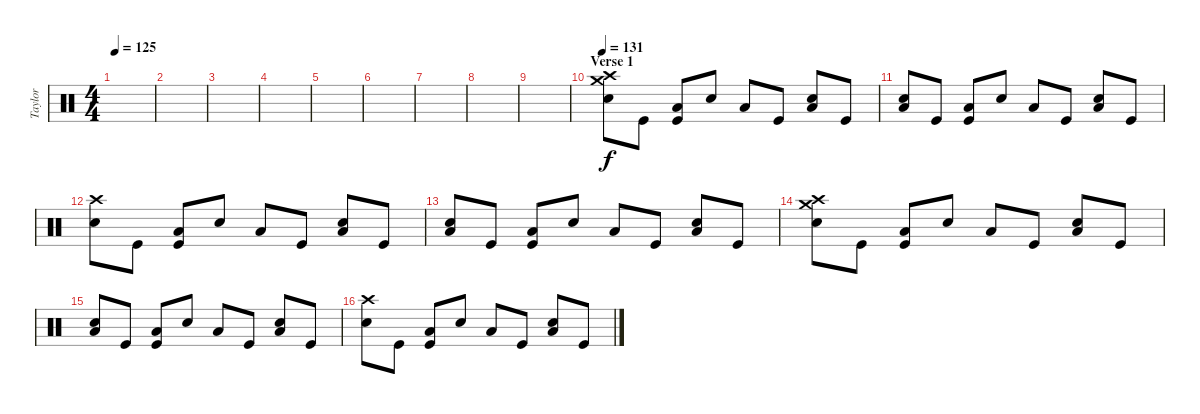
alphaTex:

\track ("Taylor" "Taylor") {instrument percussion}
\staff {score}
\articulation defaults
\ts (4 4)
\tempo 125
\clef neutral
\ks c
|
|
|
|
|
|
|
|
|
\section ("" "Verse 1")
\tempo 131
("Crash medium (hit)" "Crash high (hit)" "Snare (hit) 2").8 "Kick (hit)".8 ("Low Floor Tom (hit)" "Kick (hit)").8 "Snare (hit) 2".8 "Low Floor Tom (hit)".8 "Kick (hit)".8 ("Snare (hit) 2" "Low Floor Tom (hit)").8 "Kick (hit)".8 |
("Low Floor Tom (hit)" "Snare (hit) 2").8 "Kick (hit)".8 ("Low Floor Tom (hit)" "Kick (hit)").8 "Snare (hit) 2".8 "Low Floor Tom (hit)".8 "Kick (hit)".8 ("Snare (hit) 2" "Low Floor Tom (hit)").8 "Kick (hit)".8 |
("Crash high (hit)" "Snare (hit) 2").8 "Kick (hit)".8 ("Low Floor Tom (hit)" "Kick (hit)").8 "Snare (hit) 2".8 "Low Floor Tom (hit)".8 "Kick (hit)".8 ("Snare (hit) 2" "Low Floor Tom (hit)").8 "Kick (hit)".8 |
("Low Floor Tom (hit)" "Snare (hit) 2").8 "Kick (hit)".8 ("Low Floor Tom (hit)" "Kick (hit)").8 "Snare (hit) 2".8 "Low Floor Tom (hit)".8 "Kick (hit)".8 ("Snare (hit) 2" "Low Floor Tom (hit)").8 "Kick (hit)".8 |
("Crash medium (hit)" "Crash high (hit)" "Snare (hit) 2").8 "Kick (hit)".8 ("Low Floor Tom (hit)" "Kick (hit)").8 "Snare (hit) 2".8 "Low Floor Tom (hit)".8 "Kick (hit)".8 ("Snare (hit) 2" "Low Floor Tom (hit)").8 "Kick (hit)".8 |
("Low Floor Tom (hit)" "Snare (hit) 2").8 "Kick (hit)".8 ("Low Floor Tom (hit)" "Kick (hit)").8 "Snare (hit) 2".8 "Low Floor Tom (hit)".8 "Kick (hit)".8 ("Snare (hit) 2" "Low Floor Tom (hit)").8 "Kick (hit)".8 |
("Crash high (hit)" "Snare (hit) 2").8 "Kick (hit)".8 ("Low Floor Tom (hit)" "Kick (hit)").8 "Snare (hit) 2".8 "Low Floor Tom (hit)".8 "Kick (hit)".8 ("Snare (hit) 2" "Low Floor Tom (hit)").8 "Kick (hit)".8
